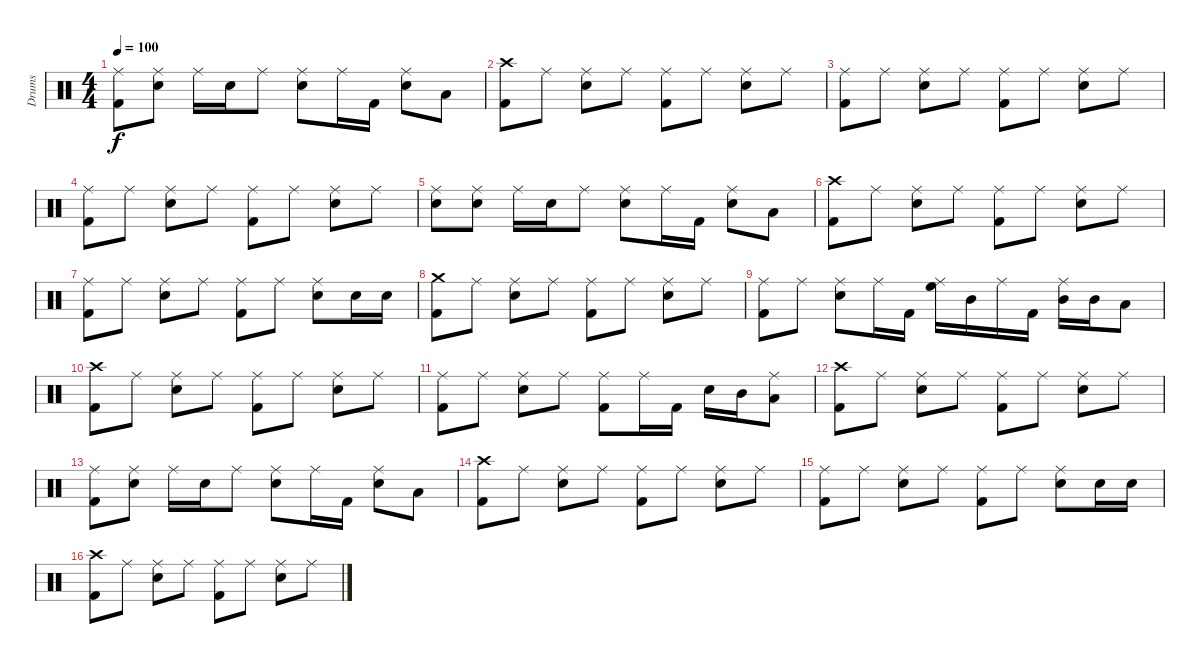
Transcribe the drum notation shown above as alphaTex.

\track ("Drums" "Drums") {instrument percussion}
\staff {score}
\articulation defaults
\ts (4 4)
\tempo 100
\clef neutral
\ks c
("Ride (middle)" "Kick (hit) 2").8{dy f} ("Ride (middle)" "Snare (hit) 2").8 "Ride (middle)".16 "Snare (hit) 2".16 "Ride (middle)".8 ("Ride (middle)" "Snare (hit) 2").8 "Ride (middle)".16 "Kick (hit) 2".16 ("Ride (middle)" "Snare (hit) 2").8 "Low Tom (hit)".8 |
("Crash high (hit)" "Kick (hit) 2").8 "Ride (middle)".8 ("Ride (middle)" "Snare (hit) 2").8 "Ride (middle)".8 ("Ride (middle)" "Kick (hit) 2").8 "Ride (middle)".8 ("Ride (middle)" "Snare (hit) 2").8 "Ride (middle)".8 |
("Ride (middle)" "Kick (hit) 2").8 "Ride (middle)".8 ("Ride (middle)" "Snare (hit) 2").8 "Ride (middle)".8 ("Ride (middle)" "Kick (hit) 2").8 "Ride (middle)".8 ("Ride (middle)" "Snare (hit) 2").8 "Ride (middle)".8 |
("Ride (middle)" "Kick (hit) 2").8 "Ride (middle)".8 ("Ride (middle)" "Snare (hit) 2").8 "Ride (middle)".8 ("Ride (middle)" "Kick (hit) 2").8 "Ride (middle)".8 ("Ride (middle)" "Snare (hit) 2").8 "Ride (middle)".8 |
("Ride (middle)" "Snare (hit) 2").8 ("Ride (middle)" "Snare (hit) 2").8 "Ride (middle)".16 "Snare (hit) 2".16 "Ride (middle)".8 ("Ride (middle)" "Snare (hit) 2").8 "Ride (middle)".16 "Kick (hit) 2".16 ("Ride (middle)" "Snare (hit) 2").8 "Low Tom (hit)".8 |
("Crash high (hit)" "Kick (hit) 2").8 "Ride (middle)".8 ("Ride (middle)" "Snare (hit) 2").8 "Ride (middle)".8 ("Ride (middle)" "Kick (hit) 2").8 "Ride (middle)".8 ("Ride (middle)" "Snare (hit) 2").8 "Ride (middle)".8 |
("Ride (middle)" "Kick (hit) 2").8 "Ride (middle)".8 ("Ride (middle)" "Snare (hit) 2").8 "Ride (middle)".8 ("Ride (middle)" "Kick (hit) 2").8 "Ride (middle)".8 ("Ride (middle)" "Snare (hit) 2").8 "Snare (hit) 2".16 "Snare (hit) 2".16 |
("Crash medium (hit)" "Kick (hit) 2").8 "Ride (middle)".8 ("Ride (middle)" "Snare (hit) 2").8 "Ride (middle)".8 ("Ride (middle)" "Kick (hit) 2").8 "Ride (middle)".8 ("Ride (middle)" "Snare (hit) 2").8 "Ride (middle)".8 |
("Ride (middle)" "Kick (hit) 2").8 "Ride (middle)".8 ("Ride (middle)" "Snare (hit) 2").8 "Ride (middle)".16 "Kick (hit) 2".16 ("Ride (middle)" "High Floor Tom (hit)").16 "Mid Tom (hit)".16 "Ride (middle)".16 "Kick (hit) 2".16 ("Ride (middle)" "Mid Tom (hit)").16 "Mid Tom (hit)".16 "Low Tom (hit)".8 |
("Crash high (hit)" "Kick (hit) 2").8 "Ride (middle)".8 ("Ride (middle)" "Snare (hit) 2").8 "Ride (middle)".8 ("Ride (middle)" "Kick (hit) 2").8 "Ride (middle)".8 ("Ride (middle)" "Snare (hit) 2").8 "Ride (middle)".8 |
("Ride (middle)" "Kick (hit) 2").8 "Ride (middle)".8 ("Ride (middle)" "Snare (hit) 2").8 "Ride (middle)".8 ("Ride (middle)" "Kick (hit) 2").8 "Ride (middle)".16 "Kick (hit) 2".16 "Snare (hit) 2".16 "Mid Tom (hit)".16 ("Ride (middle)" "Low Tom (hit)").8 |
("Crash high (hit)" "Kick (hit) 2").8 "Ride (middle)".8 ("Ride (middle)" "Snare (hit) 2").8 "Ride (middle)".8 ("Ride (middle)" "Kick (hit) 2").8 "Ride (middle)".8 ("Ride (middle)" "Snare (hit) 2").8 "Ride (middle)".8 |
("Ride (middle)" "Kick (hit) 2").8 ("Ride (middle)" "Snare (hit) 2").8 "Ride (middle)".16 "Snare (hit) 2".16 "Ride (middle)".8 ("Ride (middle)" "Snare (hit) 2").8 "Ride (middle)".16 "Kick (hit) 2".16 ("Ride (middle)" "Snare (hit) 2").8 "Low Tom (hit)".8 |
("Crash high (hit)" "Kick (hit) 2").8 "Ride (middle)".8 ("Ride (middle)" "Snare (hit) 2").8 "Ride (middle)".8 ("Ride (middle)" "Kick (hit) 2").8 "Ride (middle)".8 ("Ride (middle)" "Snare (hit) 2").8 "Ride (middle)".8 |
("Ride (middle)" "Kick (hit) 2").8 "Ride (middle)".8 ("Ride (middle)" "Snare (hit) 2").8 "Ride (middle)".8 ("Ride (middle)" "Kick (hit) 2").8 "Ride (middle)".8 ("Ride (middle)" "Snare (hit) 2").8 "Snare (hit) 2".16 "Snare (hit) 2".16 |
("Crash high (hit)" "Kick (hit) 2").8 "Ride (middle)".8 ("Ride (middle)" "Snare (hit) 2").8 "Ride (middle)".8 ("Ride (middle)" "Kick (hit) 2").8 "Ride (middle)".8 ("Ride (middle)" "Snare (hit) 2").8 "Ride (middle)".8
